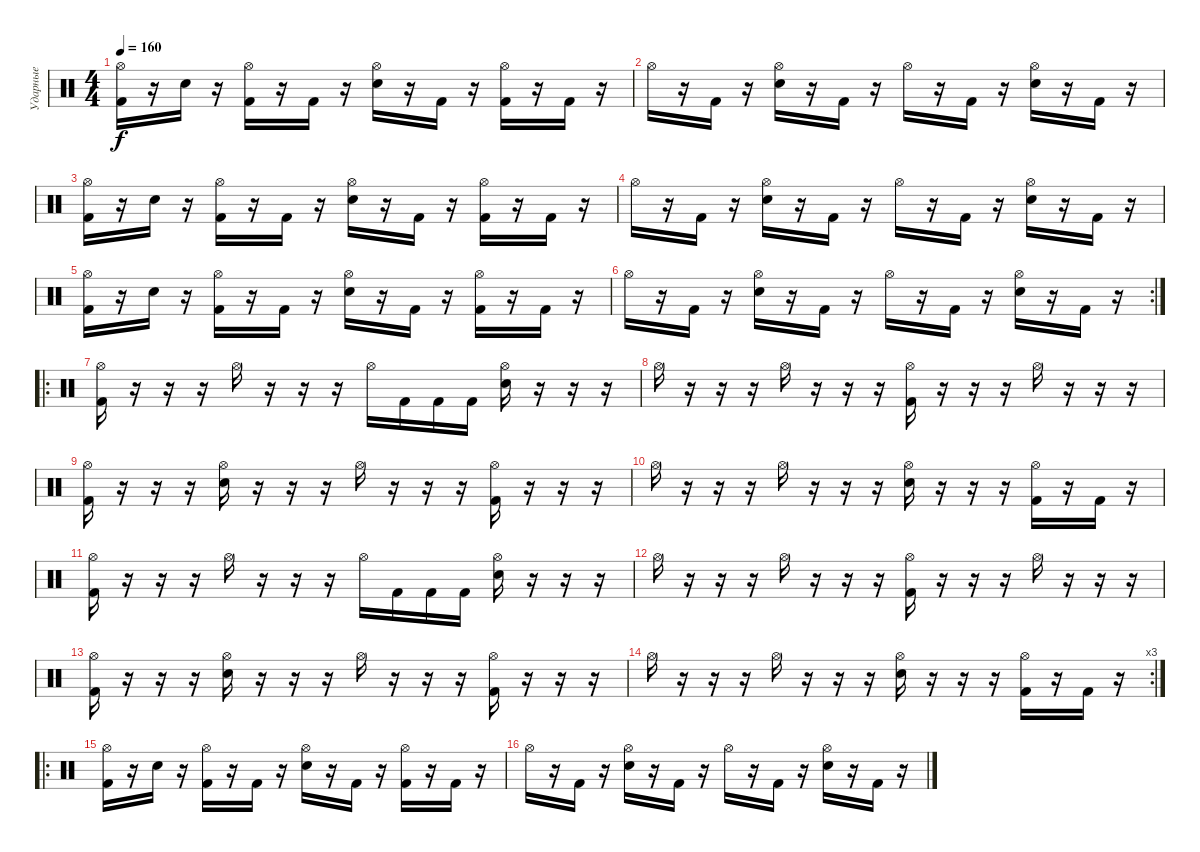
\track ("Ударные" "Ударные") {instrument percussion}
\staff {score}
\articulation defaults
\ts (4 4)
\tempo 160
\clef neutral
\ks c
("Hi-Hat (open)" "Kick (hit) 2").16{dy f} r.16 "Electric Snare (hit)".16 r.16 ("Hi-Hat (open)" "Kick (hit) 2").16 r.16 "Kick (hit) 2".16 r.16 ("Hi-Hat (open)" "Electric Snare (hit)").16 r.16 "Kick (hit) 2".16 r.16 ("Hi-Hat (open)" "Kick (hit) 2").16 r.16 "Kick (hit) 2".16 r.16 |
"Hi-Hat (open)".16 r.16 "Kick (hit) 2".16 r.16 ("Hi-Hat (open)" "Electric Snare (hit)").16 r.16 "Kick (hit) 2".16 r.16 "Hi-Hat (open)".16 r.16 "Kick (hit) 2".16 r.16 ("Hi-Hat (open)" "Electric Snare (hit)").16 r.16 "Kick (hit) 2".16 r.16 |
("Hi-Hat (open)" "Kick (hit) 2").16 r.16 "Electric Snare (hit)".16 r.16 ("Hi-Hat (open)" "Kick (hit) 2").16 r.16 "Kick (hit) 2".16 r.16 ("Hi-Hat (open)" "Electric Snare (hit)").16 r.16 "Kick (hit) 2".16 r.16 ("Hi-Hat (open)" "Kick (hit) 2").16 r.16 "Kick (hit) 2".16 r.16 |
"Hi-Hat (open)".16 r.16 "Kick (hit) 2".16 r.16 ("Hi-Hat (open)" "Electric Snare (hit)").16 r.16 "Kick (hit) 2".16 r.16 "Hi-Hat (open)".16 r.16 "Kick (hit) 2".16 r.16 ("Hi-Hat (open)" "Electric Snare (hit)").16 r.16 "Kick (hit) 2".16 r.16 |
("Hi-Hat (open)" "Kick (hit) 2").16 r.16 "Electric Snare (hit)".16 r.16 ("Hi-Hat (open)" "Kick (hit) 2").16 r.16 "Kick (hit) 2".16 r.16 ("Hi-Hat (open)" "Electric Snare (hit)").16 r.16 "Kick (hit) 2".16 r.16 ("Hi-Hat (open)" "Kick (hit) 2").16 r.16 "Kick (hit) 2".16 r.16 |
\rc 2 "Hi-Hat (open)".16
r.16 "Kick (hit) 2".16 r.16 ("Hi-Hat (open)" "Electric Snare (hit)").16 r.16 "Kick (hit) 2".16 r.16 "Hi-Hat (open)".16 r.16 "Kick (hit) 2".16 r.16 ("Hi-Hat (open)" "Electric Snare (hit)").16 r.16 "Kick (hit) 2".16 r.16 |
\ro
("Hi-Hat (open)" "Kick (hit) 2").16 r.16 r.16 r.16 "Hi-Hat (open)".16 r.16 r.16 r.16 "Hi-Hat (open)".16 "Kick (hit) 2".16 "Kick (hit) 2".16 "Kick (hit) 2".16 ("Hi-Hat (open)" "Electric Snare (hit)").16 r.16 r.16 r.16 |
"Hi-Hat (open)".16 r.16 r.16 r.16 "Hi-Hat (open)".16 r.16 r.16 r.16 ("Hi-Hat (open)" "Kick (hit) 2").16 r.16 r.16 r.16 "Hi-Hat (open)".16 r.16 r.16 r.16 |
("Hi-Hat (open)" "Kick (hit) 2").16 r.16 r.16 r.16 ("Hi-Hat (open)" "Electric Snare (hit)").16 r.16 r.16 r.16 "Hi-Hat (open)".16 r.16 r.16 r.16 ("Hi-Hat (open)" "Kick (hit) 2").16 r.16 r.16 r.16 |
"Hi-Hat (open)".16 r.16 r.16 r.16 "Hi-Hat (open)".16 r.16 r.16 r.16 ("Hi-Hat (open)" "Electric Snare (hit)").16 r.16 r.16 r.16 ("Hi-Hat (open)" "Kick (hit) 2").16 r.16 "Kick (hit) 2".16 r.16 |
("Hi-Hat (open)" "Kick (hit) 2").16 r.16 r.16 r.16 "Hi-Hat (open)".16 r.16 r.16 r.16 "Hi-Hat (open)".16 "Kick (hit) 2".16 "Kick (hit) 2".16 "Kick (hit) 2".16 ("Hi-Hat (open)" "Electric Snare (hit)").16 r.16 r.16 r.16 |
"Hi-Hat (open)".16 r.16 r.16 r.16 "Hi-Hat (open)".16 r.16 r.16 r.16 ("Hi-Hat (open)" "Kick (hit) 2").16 r.16 r.16 r.16 "Hi-Hat (open)".16 r.16 r.16 r.16 |
("Hi-Hat (open)" "Kick (hit) 2").16 r.16 r.16 r.16 ("Hi-Hat (open)" "Electric Snare (hit)").16 r.16 r.16 r.16 "Hi-Hat (open)".16 r.16 r.16 r.16 ("Hi-Hat (open)" "Kick (hit) 2").16 r.16 r.16 r.16 |
\rc 3 "Hi-Hat (open)".16
r.16 r.16 r.16 "Hi-Hat (open)".16 r.16 r.16 r.16 ("Hi-Hat (open)" "Electric Snare (hit)").16 r.16 r.16 r.16 ("Hi-Hat (open)" "Kick (hit) 2").16 r.16 "Kick (hit) 2".16 r.16 |
\ro
("Hi-Hat (open)" "Kick (hit) 2").16 r.16 "Electric Snare (hit)".16 r.16 ("Hi-Hat (open)" "Kick (hit) 2").16 r.16 "Kick (hit) 2".16 r.16 ("Hi-Hat (open)" "Electric Snare (hit)").16 r.16 "Kick (hit) 2".16 r.16 ("Hi-Hat (open)" "Kick (hit) 2").16 r.16 "Kick (hit) 2".16 r.16 |
"Hi-Hat (open)".16 r.16 "Kick (hit) 2".16 r.16 ("Hi-Hat (open)" "Electric Snare (hit)").16 r.16 "Kick (hit) 2".16 r.16 "Hi-Hat (open)".16 r.16 "Kick (hit) 2".16 r.16 ("Hi-Hat (open)" "Electric Snare (hit)").16 r.16 "Kick (hit) 2".16 r.16
